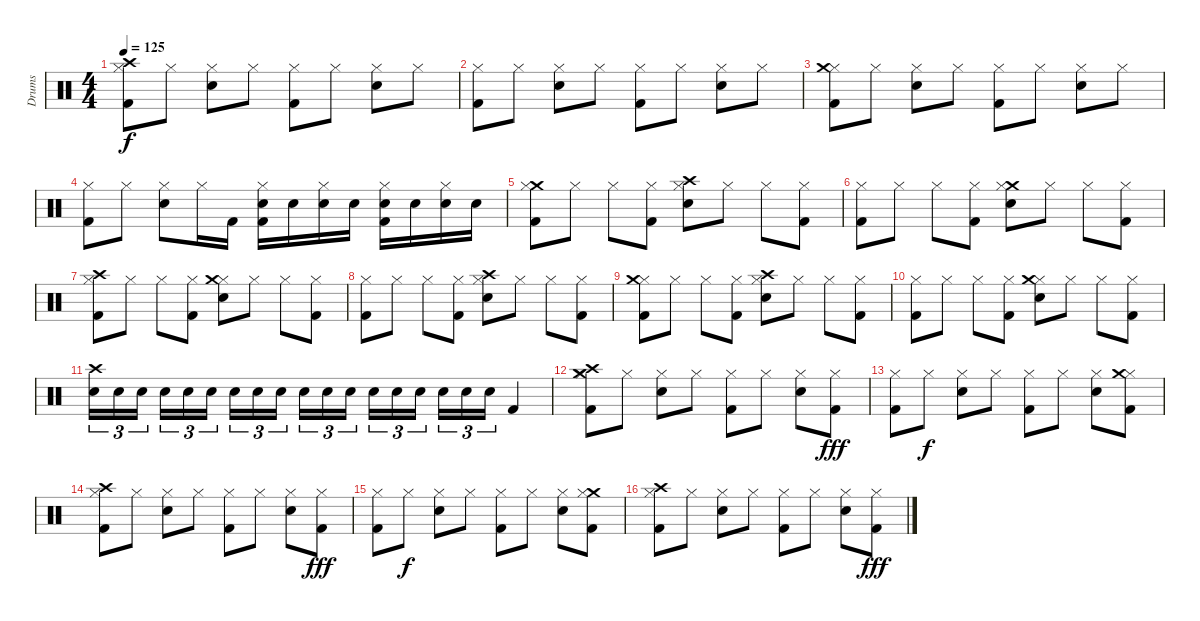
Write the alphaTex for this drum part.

\track ("Drums" "Drums") {instrument percussion}
\staff {score}
\articulation defaults
\ts (4 4)
\tempo 125
\clef neutral
\ks c
("Hi-Hat (closed)" "Kick (hit) 2" "Crash high (hit)").8{dy f} "Hi-Hat (closed)".8 ("Hi-Hat (closed)" "Snare (hit) 2").8 "Hi-Hat (closed)".8 ("Hi-Hat (closed)" "Kick (hit) 2").8 "Hi-Hat (closed)".8 ("Hi-Hat (closed)" "Snare (hit) 2").8 "Hi-Hat (closed)".8 |
("Hi-Hat (closed)" "Kick (hit) 2").8 "Hi-Hat (closed)".8 ("Hi-Hat (closed)" "Snare (hit) 2").8 "Hi-Hat (closed)".8 ("Hi-Hat (closed)" "Kick (hit) 2").8 "Hi-Hat (closed)".8 ("Hi-Hat (closed)" "Snare (hit) 2").8 "Hi-Hat (closed)".8 |
("Hi-Hat (closed)" "Kick (hit) 2" "Crash medium (hit)").8 "Hi-Hat (closed)".8 ("Hi-Hat (closed)" "Snare (hit) 2").8 "Hi-Hat (closed)".8 ("Hi-Hat (closed)" "Kick (hit) 2").8 "Hi-Hat (closed)".8 ("Hi-Hat (closed)" "Snare (hit) 2").8 "Hi-Hat (closed)".8 |
("Hi-Hat (closed)" "Kick (hit) 2").8 "Hi-Hat (closed)".8 ("Hi-Hat (closed)" "Snare (hit) 2").8 "Hi-Hat (closed)".16 "Kick (hit) 2".16 ("Kick (hit) 2" "Hi-Hat (closed)" "Snare (hit) 2").16 "Snare (hit) 2".16 ("Snare (hit) 2" "Hi-Hat (closed)").16 "Snare (hit) 2".16 ("Kick (hit) 2" "Snare (hit) 2" "Hi-Hat (closed)").16 "Snare (hit) 2".16 ("Snare (hit) 2" "Hi-Hat (closed)").16 "Snare (hit) 2".16 |
("Crash medium (hit)" "Kick (hit) 2" "Hi-Hat (closed)").8 "Hi-Hat (closed)".8 "Hi-Hat (closed)".8 ("Hi-Hat (closed)" "Kick (hit) 2").8 ("Crash high (hit)" "Hi-Hat (closed)" "Snare (hit) 2").8 "Hi-Hat (closed)".8 "Hi-Hat (closed)".8 ("Hi-Hat (closed)" "Kick (hit) 2").8 |
("Hi-Hat (closed)" "Kick (hit) 2").8 "Hi-Hat (closed)".8 "Hi-Hat (closed)".8 ("Hi-Hat (closed)" "Kick (hit) 2").8 ("Crash medium (hit)" "Hi-Hat (closed)" "Snare (hit) 2").8 "Hi-Hat (closed)".8 "Hi-Hat (closed)".8 ("Hi-Hat (closed)" "Kick (hit) 2").8 |
("Hi-Hat (closed)" "Crash high (hit)" "Kick (hit) 2").8 "Hi-Hat (closed)".8 "Hi-Hat (closed)".8 ("Kick (hit) 2" "Hi-Hat (closed)").8 ("Snare (hit) 2" "Hi-Hat (closed)" "Crash medium (hit)").8 "Hi-Hat (closed)".8 "Hi-Hat (closed)".8 ("Kick (hit) 2" "Hi-Hat (closed)").8 |
("Kick (hit) 2" "Hi-Hat (closed)").8 "Hi-Hat (closed)".8 "Hi-Hat (closed)".8 ("Kick (hit) 2" "Hi-Hat (closed)").8 ("Snare (hit) 2" "Hi-Hat (closed)" "Crash high (hit)").8 "Hi-Hat (closed)".8 "Hi-Hat (closed)".8 ("Kick (hit) 2" "Hi-Hat (closed)").8 |
("Kick (hit) 2" "Hi-Hat (closed)" "Crash medium (hit)").8 "Hi-Hat (closed)".8 "Hi-Hat (closed)".8 ("Kick (hit) 2" "Hi-Hat (closed)").8 ("Snare (hit) 2" "Hi-Hat (closed)" "Crash high (hit)").8 "Hi-Hat (closed)".8 "Hi-Hat (closed)".8 ("Kick (hit) 2" "Hi-Hat (closed)").8 |
("Kick (hit) 2" "Hi-Hat (closed)").8 "Hi-Hat (closed)".8 "Hi-Hat (closed)".8 ("Kick (hit) 2" "Hi-Hat (closed)").8 ("Snare (hit) 2" "Hi-Hat (closed)" "Crash medium (hit)").8 "Hi-Hat (closed)".8 "Hi-Hat (closed)".8 ("Kick (hit) 2" "Hi-Hat (closed)").8 |
("Crash high (hit)" "Snare (hit) 2").16{tu (3 2)} "Snare (hit) 2".16{tu (3 2)} "Snare (hit) 2".16{tu (3 2)} "Snare (hit) 2".16{tu (3 2)} "Snare (hit) 2".16{tu (3 2)} "Snare (hit) 2".16{tu (3 2)} "Snare (hit) 2".16{tu (3 2)} "Snare (hit) 2".16{tu (3 2)} "Snare (hit) 2".16{tu (3 2)} "Snare (hit) 2".16{tu (3 2)} "Snare (hit) 2".16{tu (3 2)} "Snare (hit) 2".16{tu (3 2)} "Snare (hit) 2".16{tu (3 2)} "Snare (hit) 2".16{tu (3 2)} "Snare (hit) 2".16{tu (3 2)} "Snare (hit) 2".16{tu (3 2)} "Snare (hit) 2".16{tu (3 2)} "Snare (hit) 2".16{tu (3 2)} "Kick (hit) 2".4 |
("Hi-Hat (closed)" "Crash high (hit)" "Crash medium (hit)" "Kick (hit) 2").8 "Hi-Hat (closed)".8 ("Hi-Hat (closed)" "Snare (hit) 2").8 "Hi-Hat (closed)".8 ("Hi-Hat (closed)" "Kick (hit) 2").8 "Hi-Hat (closed)".8 ("Hi-Hat (closed)" "Snare (hit) 2").8 ("Hi-Hat (closed)" "Kick (hit) 2").8{dy fff} |
("Hi-Hat (closed)" "Kick (hit) 2").8 "Hi-Hat (closed)".8{dy f} ("Hi-Hat (closed)" "Snare (hit) 2").8 "Hi-Hat (closed)".8 ("Hi-Hat (closed)" "Kick (hit) 2").8 "Hi-Hat (closed)".8 ("Hi-Hat (closed)" "Snare (hit) 2").8 ("Hi-Hat (closed)" "Crash medium (hit)" "Kick (hit) 2").8 |
("Hi-Hat (closed)" "Crash high (hit)" "Kick (hit) 2").8 "Hi-Hat (closed)".8 ("Hi-Hat (closed)" "Snare (hit) 2").8 "Hi-Hat (closed)".8 ("Hi-Hat (closed)" "Kick (hit) 2").8 "Hi-Hat (closed)".8 ("Hi-Hat (closed)" "Snare (hit) 2").8 ("Hi-Hat (closed)" "Kick (hit) 2").8{dy fff} |
("Hi-Hat (closed)" "Kick (hit) 2").8 "Hi-Hat (closed)".8{dy f} ("Hi-Hat (closed)" "Snare (hit) 2").8 "Hi-Hat (closed)".8 ("Hi-Hat (closed)" "Kick (hit) 2").8 "Hi-Hat (closed)".8 ("Hi-Hat (closed)" "Snare (hit) 2").8 ("Crash medium (hit)" "Hi-Hat (closed)" "Kick (hit) 2").8 |
("Crash high (hit)" "Kick (hit) 2" "Hi-Hat (closed)").8 "Hi-Hat (closed)".8 ("Snare (hit) 2" "Hi-Hat (closed)").8 "Hi-Hat (closed)".8 ("Kick (hit) 2" "Hi-Hat (closed)").8 "Hi-Hat (closed)".8 ("Snare (hit) 2" "Hi-Hat (closed)").8 ("Kick (hit) 2" "Hi-Hat (closed)").8{dy fff}
